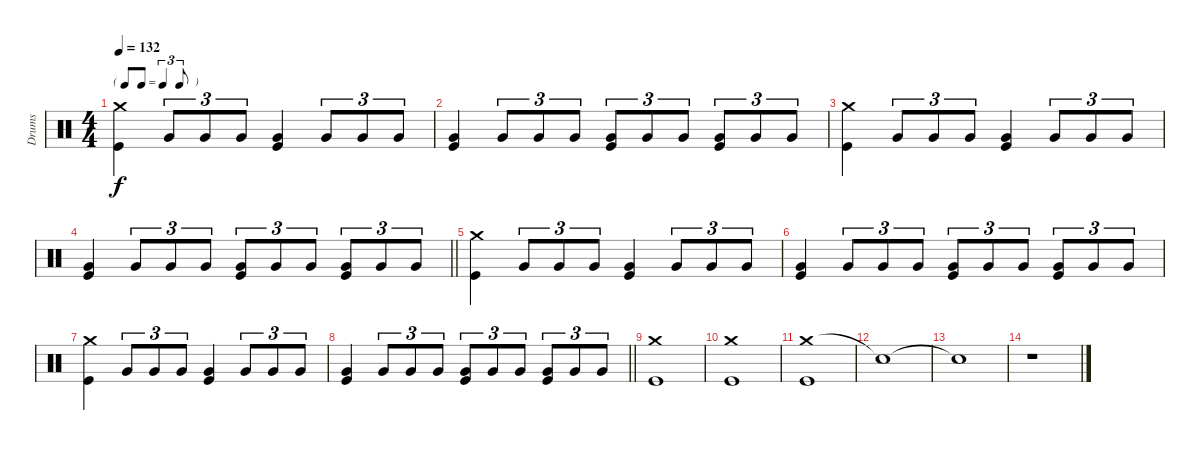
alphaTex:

\track ("Drums" "Drums") {instrument percussion}
\staff {score}
\articulation defaults
\ts (4 4)
\tf triplet8th
\tempo 132
\clef neutral
\ks c
("Crash medium (hit)" "Kick (hit)").4{dy f} "Very Low Tom (hit)".8{tu (3 2)} "Very Low Tom (hit)".8{tu (3 2)} "Very Low Tom (hit)".8{tu (3 2)} ("Very Low Tom (hit)" "Kick (hit)").4 "Very Low Tom (hit)".8{tu (3 2)} "Very Low Tom (hit)".8{tu (3 2)} "Very Low Tom (hit)".8{tu (3 2)} |
("Very Low Tom (hit)" "Kick (hit)").4 "Very Low Tom (hit)".8{tu (3 2)} "Very Low Tom (hit)".8{tu (3 2)} "Very Low Tom (hit)".8{tu (3 2)} ("Very Low Tom (hit)" "Kick (hit)").8{tu (3 2)} "Very Low Tom (hit)".8{tu (3 2)} "Very Low Tom (hit)".8{tu (3 2)} ("Very Low Tom (hit)" "Kick (hit)").8{tu (3 2)} "Very Low Tom (hit)".8{tu (3 2)} "Very Low Tom (hit)".8{tu (3 2)} |
("Crash medium (hit)" "Kick (hit)").4 "Very Low Tom (hit)".8{tu (3 2)} "Very Low Tom (hit)".8{tu (3 2)} "Very Low Tom (hit)".8{tu (3 2)} ("Very Low Tom (hit)" "Kick (hit)").4 "Very Low Tom (hit)".8{tu (3 2)} "Very Low Tom (hit)".8{tu (3 2)} "Very Low Tom (hit)".8{tu (3 2)} |
\barLineRight lightlight
("Very Low Tom (hit)" "Kick (hit)").4 "Very Low Tom (hit)".8{tu (3 2)} "Very Low Tom (hit)".8{tu (3 2)} "Very Low Tom (hit)".8{tu (3 2)} ("Very Low Tom (hit)" "Kick (hit)").8{tu (3 2)} "Very Low Tom (hit)".8{tu (3 2)} "Very Low Tom (hit)".8{tu (3 2)} ("Very Low Tom (hit)" "Kick (hit)").8{tu (3 2)} "Very Low Tom (hit)".8{tu (3 2)} "Very Low Tom (hit)".8{tu (3 2)} |
("Crash medium (hit)" "Kick (hit)").4 "Very Low Tom (hit)".8{tu (3 2)} "Very Low Tom (hit)".8{tu (3 2)} "Very Low Tom (hit)".8{tu (3 2)} ("Very Low Tom (hit)" "Kick (hit)").4 "Very Low Tom (hit)".8{tu (3 2)} "Very Low Tom (hit)".8{tu (3 2)} "Very Low Tom (hit)".8{tu (3 2)} |
("Very Low Tom (hit)" "Kick (hit)").4 "Very Low Tom (hit)".8{tu (3 2)} "Very Low Tom (hit)".8{tu (3 2)} "Very Low Tom (hit)".8{tu (3 2)} ("Very Low Tom (hit)" "Kick (hit)").8{tu (3 2)} "Very Low Tom (hit)".8{tu (3 2)} "Very Low Tom (hit)".8{tu (3 2)} ("Very Low Tom (hit)" "Kick (hit)").8{tu (3 2)} "Very Low Tom (hit)".8{tu (3 2)} "Very Low Tom (hit)".8{tu (3 2)} |
("Crash medium (hit)" "Kick (hit)").4 "Very Low Tom (hit)".8{tu (3 2)} "Very Low Tom (hit)".8{tu (3 2)} "Very Low Tom (hit)".8{tu (3 2)} ("Very Low Tom (hit)" "Kick (hit)").4 "Very Low Tom (hit)".8{tu (3 2)} "Very Low Tom (hit)".8{tu (3 2)} "Very Low Tom (hit)".8{tu (3 2)} |
\barLineRight lightlight
("Very Low Tom (hit)" "Kick (hit)").4 "Very Low Tom (hit)".8{tu (3 2)} "Very Low Tom (hit)".8{tu (3 2)} "Very Low Tom (hit)".8{tu (3 2)} ("Very Low Tom (hit)" "Kick (hit)").8{tu (3 2)} "Very Low Tom (hit)".8{tu (3 2)} "Very Low Tom (hit)".8{tu (3 2)} ("Very Low Tom (hit)" "Kick (hit)").8{tu (3 2)} "Very Low Tom (hit)".8{tu (3 2)} "Very Low Tom (hit)".8{tu (3 2)} |
("Crash medium (hit)" "Kick (hit)").1 |
("Crash medium (hit)" "Kick (hit)").1 |
("Crash medium (hit)" "Kick (hit)").1 |
"Snare (hit)"{t}.1 |
"Snare (hit)"{t}.1 |
r.1
